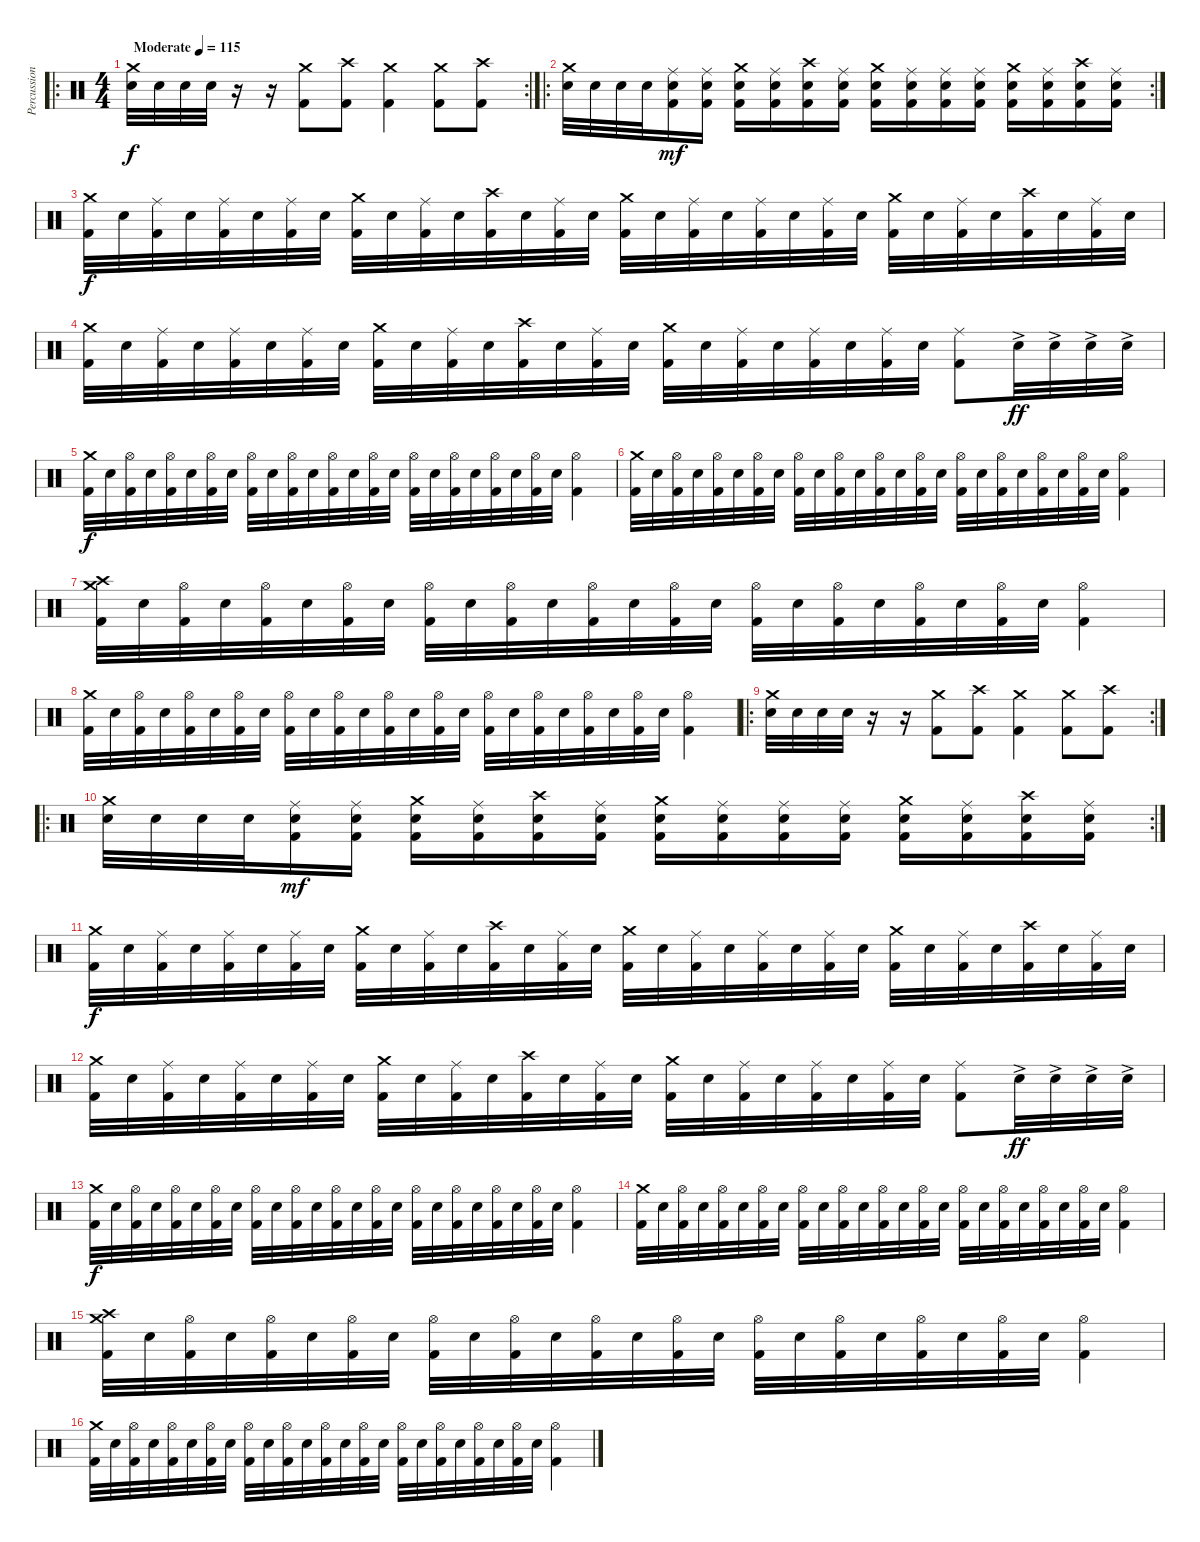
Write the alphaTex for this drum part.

\track ("Percussion" "Percussion") {instrument percussion}
\staff {score}
\articulation defaults
\ro
\rc 2
\ts (4 4)
\tempo (115 "Moderate")
\clef neutral
\ks c
("Crash medium (hit)" "Electric Snare (hit)").32{dy f} "Electric Snare (hit)".32 "Electric Snare (hit)".32 "Electric Snare (hit)".32 r.16 r.16 ("Crash medium (hit)" "Kick (hit) 2").8 ("Crash high (hit)" "Kick (hit) 2").8 ("Crash medium (hit)" "Kick (hit) 2").4 ("Crash medium (hit)" "Kick (hit) 2").8 ("Crash high (hit)" "Kick (hit) 2").8 |
\ro
\rc 2
("Crash medium (hit)" "Electric Snare (hit)").32 "Electric Snare (hit)".32 "Electric Snare (hit)".32 "Electric Snare (hit)".32 ("Ride (middle)" "Electric Snare (hit)" "Kick (hit) 2").16{dy mf} ("Ride (middle)" "Electric Snare (hit)" "Kick (hit) 2").16 ("Crash medium (hit)" "Electric Snare (hit)" "Kick (hit) 2").16 ("Ride (middle)" "Electric Snare (hit)" "Kick (hit) 2").16 ("Crash high (hit)" "Electric Snare (hit)" "Kick (hit) 2").16 ("Ride (middle)" "Electric Snare (hit)" "Kick (hit) 2").16 ("Crash medium (hit)" "Electric Snare (hit)" "Kick (hit) 2").16 ("Ride (middle)" "Electric Snare (hit)" "Kick (hit) 2").16 ("Ride (middle)" "Electric Snare (hit)" "Kick (hit) 2").16 ("Ride (middle)" "Electric Snare (hit)" "Kick (hit) 2").16 ("Crash medium (hit)" "Electric Snare (hit)" "Kick (hit) 2").16 ("Ride (middle)" "Electric Snare (hit)" "Kick (hit) 2").16 ("Crash high (hit)" "Electric Snare (hit)" "Kick (hit) 2").16 ("Ride (middle)" "Electric Snare (hit)" "Kick (hit) 2").16 |
("Crash medium (hit)" "Kick (hit) 2").32{dy f} "Electric Snare (hit)".32 ("Ride (middle)" "Kick (hit) 2").32 "Electric Snare (hit)".32 ("Ride (middle)" "Kick (hit) 2").32 "Electric Snare (hit)".32 ("Ride (middle)" "Kick (hit) 2").32 "Electric Snare (hit)".32 ("Crash medium (hit)" "Kick (hit) 2").32 "Electric Snare (hit)".32 ("Ride (middle)" "Kick (hit) 2").32 "Electric Snare (hit)".32 ("Crash high (hit)" "Kick (hit) 2").32 "Electric Snare (hit)".32 ("Ride (middle)" "Kick (hit) 2").32 "Electric Snare (hit)".32 ("Crash medium (hit)" "Kick (hit) 2").32 "Electric Snare (hit)".32 ("Ride (middle)" "Kick (hit) 2").32 "Electric Snare (hit)".32 ("Ride (middle)" "Kick (hit) 2").32 "Electric Snare (hit)".32 ("Ride (middle)" "Kick (hit) 2").32 "Electric Snare (hit)".32 ("Crash medium (hit)" "Kick (hit) 2").32 "Electric Snare (hit)".32 ("Ride (middle)" "Kick (hit) 2").32 "Electric Snare (hit)".32 ("Crash high (hit)" "Kick (hit) 2").32 "Electric Snare (hit)".32 ("Ride (middle)" "Kick (hit) 2").32 "Electric Snare (hit)".32 |
("Crash medium (hit)" "Kick (hit) 2").32 "Electric Snare (hit)".32 ("Ride (middle)" "Kick (hit) 2").32 "Electric Snare (hit)".32 ("Ride (middle)" "Kick (hit) 2").32 "Electric Snare (hit)".32 ("Ride (middle)" "Kick (hit) 2").32 "Electric Snare (hit)".32 ("Crash medium (hit)" "Kick (hit) 2").32 "Electric Snare (hit)".32 ("Ride (middle)" "Kick (hit) 2").32 "Electric Snare (hit)".32 ("Crash high (hit)" "Kick (hit) 2").32 "Electric Snare (hit)".32 ("Ride (middle)" "Kick (hit) 2").32 "Electric Snare (hit)".32 ("Crash medium (hit)" "Kick (hit) 2").32 "Electric Snare (hit)".32 ("Ride (middle)" "Kick (hit) 2").32 "Electric Snare (hit)".32 ("Ride (middle)" "Kick (hit) 2").32 "Electric Snare (hit)".32 ("Ride (middle)" "Kick (hit) 2").32 "Electric Snare (hit)".32 ("Ride (middle)" "Kick (hit) 2").8 "Electric Snare (hit)"{ac}.32{dy ff} "Electric Snare (hit)"{ac}.32 "Electric Snare (hit)"{ac}.32 "Electric Snare (hit)"{ac}.32 |
("Crash medium (hit)" "Kick (hit) 2").32{dy f} "Electric Snare (hit)".32 ("Hi-Hat (open)" "Kick (hit) 2").32 "Electric Snare (hit)".32 ("Hi-Hat (open)" "Kick (hit) 2").32 "Electric Snare (hit)".32 ("Hi-Hat (open)" "Kick (hit) 2").32 "Electric Snare (hit)".32 ("Hi-Hat (open)" "Kick (hit) 2").32 "Electric Snare (hit)".32 ("Hi-Hat (open)" "Kick (hit) 2").32 "Electric Snare (hit)".32 ("Hi-Hat (open)" "Kick (hit) 2").32 "Electric Snare (hit)".32 ("Hi-Hat (open)" "Kick (hit) 2").32 "Electric Snare (hit)".32 ("Hi-Hat (open)" "Kick (hit) 2").32 "Electric Snare (hit)".32 ("Hi-Hat (open)" "Kick (hit) 2").32 "Electric Snare (hit)".32 ("Hi-Hat (open)" "Kick (hit) 2").32 "Electric Snare (hit)".32 ("Hi-Hat (open)" "Kick (hit) 2").32 "Electric Snare (hit)".32 ("Hi-Hat (open)" "Kick (hit) 2").4 |
("Crash medium (hit)" "Kick (hit) 2").32 "Electric Snare (hit)".32 ("Hi-Hat (open)" "Kick (hit) 2").32 "Electric Snare (hit)".32 ("Hi-Hat (open)" "Kick (hit) 2").32 "Electric Snare (hit)".32 ("Hi-Hat (open)" "Kick (hit) 2").32 "Electric Snare (hit)".32 ("Hi-Hat (open)" "Kick (hit) 2").32 "Electric Snare (hit)".32 ("Hi-Hat (open)" "Kick (hit) 2").32 "Electric Snare (hit)".32 ("Hi-Hat (open)" "Kick (hit) 2").32 "Electric Snare (hit)".32 ("Hi-Hat (open)" "Kick (hit) 2").32 "Electric Snare (hit)".32 ("Hi-Hat (open)" "Kick (hit) 2").32 "Electric Snare (hit)".32 ("Hi-Hat (open)" "Kick (hit) 2").32 "Electric Snare (hit)".32 ("Hi-Hat (open)" "Kick (hit) 2").32 "Electric Snare (hit)".32 ("Hi-Hat (open)" "Kick (hit) 2").32 "Electric Snare (hit)".32 ("Hi-Hat (open)" "Kick (hit) 2").4 |
("Crash high (hit)" "Crash medium (hit)" "Kick (hit) 2").32 "Electric Snare (hit)".32 ("Hi-Hat (open)" "Kick (hit) 2").32 "Electric Snare (hit)".32 ("Hi-Hat (open)" "Kick (hit) 2").32 "Electric Snare (hit)".32 ("Hi-Hat (open)" "Kick (hit) 2").32 "Electric Snare (hit)".32 ("Hi-Hat (open)" "Kick (hit) 2").32 "Electric Snare (hit)".32 ("Hi-Hat (open)" "Kick (hit) 2").32 "Electric Snare (hit)".32 ("Hi-Hat (open)" "Kick (hit) 2").32 "Electric Snare (hit)".32 ("Hi-Hat (open)" "Kick (hit) 2").32 "Electric Snare (hit)".32 ("Hi-Hat (open)" "Kick (hit) 2").32 "Electric Snare (hit)".32 ("Hi-Hat (open)" "Kick (hit) 2").32 "Electric Snare (hit)".32 ("Hi-Hat (open)" "Kick (hit) 2").32 "Electric Snare (hit)".32 ("Hi-Hat (open)" "Kick (hit) 2").32 "Electric Snare (hit)".32 ("Hi-Hat (open)" "Kick (hit) 2").4 |
("Crash medium (hit)" "Kick (hit) 2").32 "Electric Snare (hit)".32 ("Hi-Hat (open)" "Kick (hit) 2").32 "Electric Snare (hit)".32 ("Hi-Hat (open)" "Kick (hit) 2").32 "Electric Snare (hit)".32 ("Hi-Hat (open)" "Kick (hit) 2").32 "Electric Snare (hit)".32 ("Hi-Hat (open)" "Kick (hit) 2").32 "Electric Snare (hit)".32 ("Hi-Hat (open)" "Kick (hit) 2").32 "Electric Snare (hit)".32 ("Hi-Hat (open)" "Kick (hit) 2").32 "Electric Snare (hit)".32 ("Hi-Hat (open)" "Kick (hit) 2").32 "Electric Snare (hit)".32 ("Hi-Hat (open)" "Kick (hit) 2").32 "Electric Snare (hit)".32 ("Hi-Hat (open)" "Kick (hit) 2").32 "Electric Snare (hit)".32 ("Hi-Hat (open)" "Kick (hit) 2").32 "Electric Snare (hit)".32 ("Hi-Hat (open)" "Kick (hit) 2").32 "Electric Snare (hit)".32 ("Hi-Hat (open)" "Kick (hit) 2").4 |
\ro
\rc 2
("Crash medium (hit)" "Electric Snare (hit)").32 "Electric Snare (hit)".32 "Electric Snare (hit)".32 "Electric Snare (hit)".32 r.16 r.16 ("Crash medium (hit)" "Kick (hit) 2").8 ("Crash high (hit)" "Kick (hit) 2").8 ("Crash medium (hit)" "Kick (hit) 2").4 ("Crash medium (hit)" "Kick (hit) 2").8 ("Crash high (hit)" "Kick (hit) 2").8 |
\ro
\rc 2
("Crash medium (hit)" "Electric Snare (hit)").32 "Electric Snare (hit)".32 "Electric Snare (hit)".32 "Electric Snare (hit)".32 ("Ride (middle)" "Electric Snare (hit)" "Kick (hit) 2").16{dy mf} ("Ride (middle)" "Electric Snare (hit)" "Kick (hit) 2").16 ("Crash medium (hit)" "Electric Snare (hit)" "Kick (hit) 2").16 ("Ride (middle)" "Electric Snare (hit)" "Kick (hit) 2").16 ("Crash high (hit)" "Electric Snare (hit)" "Kick (hit) 2").16 ("Ride (middle)" "Electric Snare (hit)" "Kick (hit) 2").16 ("Crash medium (hit)" "Electric Snare (hit)" "Kick (hit) 2").16 ("Ride (middle)" "Electric Snare (hit)" "Kick (hit) 2").16 ("Ride (middle)" "Electric Snare (hit)" "Kick (hit) 2").16 ("Ride (middle)" "Electric Snare (hit)" "Kick (hit) 2").16 ("Crash medium (hit)" "Electric Snare (hit)" "Kick (hit) 2").16 ("Ride (middle)" "Electric Snare (hit)" "Kick (hit) 2").16 ("Crash high (hit)" "Electric Snare (hit)" "Kick (hit) 2").16 ("Ride (middle)" "Electric Snare (hit)" "Kick (hit) 2").16 |
("Crash medium (hit)" "Kick (hit) 2").32{dy f} "Electric Snare (hit)".32 ("Ride (middle)" "Kick (hit) 2").32 "Electric Snare (hit)".32 ("Ride (middle)" "Kick (hit) 2").32 "Electric Snare (hit)".32 ("Ride (middle)" "Kick (hit) 2").32 "Electric Snare (hit)".32 ("Crash medium (hit)" "Kick (hit) 2").32 "Electric Snare (hit)".32 ("Ride (middle)" "Kick (hit) 2").32 "Electric Snare (hit)".32 ("Crash high (hit)" "Kick (hit) 2").32 "Electric Snare (hit)".32 ("Ride (middle)" "Kick (hit) 2").32 "Electric Snare (hit)".32 ("Crash medium (hit)" "Kick (hit) 2").32 "Electric Snare (hit)".32 ("Ride (middle)" "Kick (hit) 2").32 "Electric Snare (hit)".32 ("Ride (middle)" "Kick (hit) 2").32 "Electric Snare (hit)".32 ("Ride (middle)" "Kick (hit) 2").32 "Electric Snare (hit)".32 ("Crash medium (hit)" "Kick (hit) 2").32 "Electric Snare (hit)".32 ("Ride (middle)" "Kick (hit) 2").32 "Electric Snare (hit)".32 ("Crash high (hit)" "Kick (hit) 2").32 "Electric Snare (hit)".32 ("Ride (middle)" "Kick (hit) 2").32 "Electric Snare (hit)".32 |
("Crash medium (hit)" "Kick (hit) 2").32 "Electric Snare (hit)".32 ("Ride (middle)" "Kick (hit) 2").32 "Electric Snare (hit)".32 ("Ride (middle)" "Kick (hit) 2").32 "Electric Snare (hit)".32 ("Ride (middle)" "Kick (hit) 2").32 "Electric Snare (hit)".32 ("Crash medium (hit)" "Kick (hit) 2").32 "Electric Snare (hit)".32 ("Ride (middle)" "Kick (hit) 2").32 "Electric Snare (hit)".32 ("Crash high (hit)" "Kick (hit) 2").32 "Electric Snare (hit)".32 ("Ride (middle)" "Kick (hit) 2").32 "Electric Snare (hit)".32 ("Crash medium (hit)" "Kick (hit) 2").32 "Electric Snare (hit)".32 ("Ride (middle)" "Kick (hit) 2").32 "Electric Snare (hit)".32 ("Ride (middle)" "Kick (hit) 2").32 "Electric Snare (hit)".32 ("Ride (middle)" "Kick (hit) 2").32 "Electric Snare (hit)".32 ("Ride (middle)" "Kick (hit) 2").8 "Electric Snare (hit)"{ac}.32{dy ff} "Electric Snare (hit)"{ac}.32 "Electric Snare (hit)"{ac}.32 "Electric Snare (hit)"{ac}.32 |
("Crash medium (hit)" "Kick (hit) 2").32{dy f} "Electric Snare (hit)".32 ("Hi-Hat (open)" "Kick (hit) 2").32 "Electric Snare (hit)".32 ("Hi-Hat (open)" "Kick (hit) 2").32 "Electric Snare (hit)".32 ("Hi-Hat (open)" "Kick (hit) 2").32 "Electric Snare (hit)".32 ("Hi-Hat (open)" "Kick (hit) 2").32 "Electric Snare (hit)".32 ("Hi-Hat (open)" "Kick (hit) 2").32 "Electric Snare (hit)".32 ("Hi-Hat (open)" "Kick (hit) 2").32 "Electric Snare (hit)".32 ("Hi-Hat (open)" "Kick (hit) 2").32 "Electric Snare (hit)".32 ("Hi-Hat (open)" "Kick (hit) 2").32 "Electric Snare (hit)".32 ("Hi-Hat (open)" "Kick (hit) 2").32 "Electric Snare (hit)".32 ("Hi-Hat (open)" "Kick (hit) 2").32 "Electric Snare (hit)".32 ("Hi-Hat (open)" "Kick (hit) 2").32 "Electric Snare (hit)".32 ("Hi-Hat (open)" "Kick (hit) 2").4 |
("Crash medium (hit)" "Kick (hit) 2").32 "Electric Snare (hit)".32 ("Hi-Hat (open)" "Kick (hit) 2").32 "Electric Snare (hit)".32 ("Hi-Hat (open)" "Kick (hit) 2").32 "Electric Snare (hit)".32 ("Hi-Hat (open)" "Kick (hit) 2").32 "Electric Snare (hit)".32 ("Hi-Hat (open)" "Kick (hit) 2").32 "Electric Snare (hit)".32 ("Hi-Hat (open)" "Kick (hit) 2").32 "Electric Snare (hit)".32 ("Hi-Hat (open)" "Kick (hit) 2").32 "Electric Snare (hit)".32 ("Hi-Hat (open)" "Kick (hit) 2").32 "Electric Snare (hit)".32 ("Hi-Hat (open)" "Kick (hit) 2").32 "Electric Snare (hit)".32 ("Hi-Hat (open)" "Kick (hit) 2").32 "Electric Snare (hit)".32 ("Hi-Hat (open)" "Kick (hit) 2").32 "Electric Snare (hit)".32 ("Hi-Hat (open)" "Kick (hit) 2").32 "Electric Snare (hit)".32 ("Hi-Hat (open)" "Kick (hit) 2").4 |
("Crash high (hit)" "Crash medium (hit)" "Kick (hit) 2").32 "Electric Snare (hit)".32 ("Hi-Hat (open)" "Kick (hit) 2").32 "Electric Snare (hit)".32 ("Hi-Hat (open)" "Kick (hit) 2").32 "Electric Snare (hit)".32 ("Hi-Hat (open)" "Kick (hit) 2").32 "Electric Snare (hit)".32 ("Hi-Hat (open)" "Kick (hit) 2").32 "Electric Snare (hit)".32 ("Hi-Hat (open)" "Kick (hit) 2").32 "Electric Snare (hit)".32 ("Hi-Hat (open)" "Kick (hit) 2").32 "Electric Snare (hit)".32 ("Hi-Hat (open)" "Kick (hit) 2").32 "Electric Snare (hit)".32 ("Hi-Hat (open)" "Kick (hit) 2").32 "Electric Snare (hit)".32 ("Hi-Hat (open)" "Kick (hit) 2").32 "Electric Snare (hit)".32 ("Hi-Hat (open)" "Kick (hit) 2").32 "Electric Snare (hit)".32 ("Hi-Hat (open)" "Kick (hit) 2").32 "Electric Snare (hit)".32 ("Hi-Hat (open)" "Kick (hit) 2").4 |
("Crash medium (hit)" "Kick (hit) 2").32 "Electric Snare (hit)".32 ("Hi-Hat (open)" "Kick (hit) 2").32 "Electric Snare (hit)".32 ("Hi-Hat (open)" "Kick (hit) 2").32 "Electric Snare (hit)".32 ("Hi-Hat (open)" "Kick (hit) 2").32 "Electric Snare (hit)".32 ("Hi-Hat (open)" "Kick (hit) 2").32 "Electric Snare (hit)".32 ("Hi-Hat (open)" "Kick (hit) 2").32 "Electric Snare (hit)".32 ("Hi-Hat (open)" "Kick (hit) 2").32 "Electric Snare (hit)".32 ("Hi-Hat (open)" "Kick (hit) 2").32 "Electric Snare (hit)".32 ("Hi-Hat (open)" "Kick (hit) 2").32 "Electric Snare (hit)".32 ("Hi-Hat (open)" "Kick (hit) 2").32 "Electric Snare (hit)".32 ("Hi-Hat (open)" "Kick (hit) 2").32 "Electric Snare (hit)".32 ("Hi-Hat (open)" "Kick (hit) 2").32 "Electric Snare (hit)".32 ("Hi-Hat (open)" "Kick (hit) 2").4
